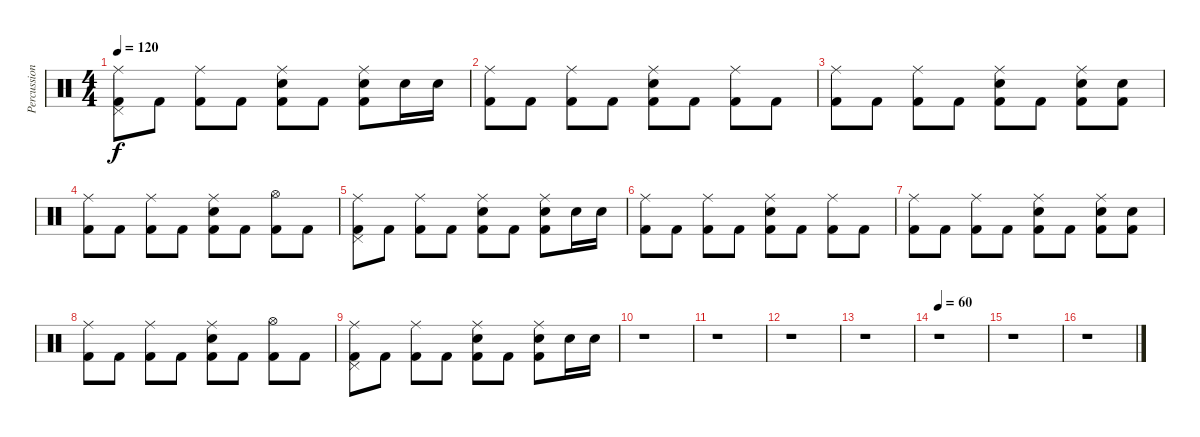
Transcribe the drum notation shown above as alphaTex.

\track ("Percussion" "Percussion") {instrument percussion}
\staff {score}
\articulation defaults
\ts (4 4)
\tempo 120
\clef neutral
\ks c
("Ride (middle)" "Pedal Hi-Hat (hit)" "Kick (hit) 2").8{dy f} "Kick (hit) 2".8 ("Ride (middle)" "Kick (hit) 2").8 "Kick (hit) 2".8 ("Ride (middle)" "Snare (hit) 2" "Kick (hit) 2").8 "Kick (hit) 2".8 ("Ride (middle)" "Snare (hit) 2" "Kick (hit) 2").8 "Snare (hit) 2".16 "Snare (hit) 2".16 |
("Ride (middle)" "Kick (hit) 2").8 "Kick (hit) 2".8 ("Ride (middle)" "Kick (hit) 2").8 "Kick (hit) 2".8 ("Ride (middle)" "Snare (hit) 2" "Kick (hit) 2").8 "Kick (hit) 2".8 ("Ride (middle)" "Kick (hit) 2").8 "Kick (hit) 2".8 |
("Ride (middle)" "Kick (hit) 2").8 "Kick (hit) 2".8 ("Ride (middle)" "Kick (hit) 2").8 "Kick (hit) 2".8 ("Ride (middle)" "Snare (hit) 2" "Kick (hit) 2").8 "Kick (hit) 2".8 ("Ride (middle)" "Snare (hit) 2" "Kick (hit) 2").8 ("Snare (hit) 2" "Kick (hit) 2").8 |
("Ride (middle)" "Kick (hit) 2").8 "Kick (hit) 2".8 ("Ride (middle)" "Kick (hit) 2").8 "Kick (hit) 2".8 ("Ride (middle)" "Snare (hit) 2" "Kick (hit) 2").8 "Kick (hit) 2".8 ("Hi-Hat (open)" "Kick (hit) 2").8 "Kick (hit) 2".8 |
("Ride (middle)" "Pedal Hi-Hat (hit)" "Kick (hit) 2").8 "Kick (hit) 2".8 ("Ride (middle)" "Kick (hit) 2").8 "Kick (hit) 2".8 ("Ride (middle)" "Snare (hit) 2" "Kick (hit) 2").8 "Kick (hit) 2".8 ("Ride (middle)" "Snare (hit) 2" "Kick (hit) 2").8 "Snare (hit) 2".16 "Snare (hit) 2".16 |
("Ride (middle)" "Kick (hit) 2").8 "Kick (hit) 2".8 ("Ride (middle)" "Kick (hit) 2").8 "Kick (hit) 2".8 ("Ride (middle)" "Snare (hit) 2" "Kick (hit) 2").8 "Kick (hit) 2".8 ("Ride (middle)" "Kick (hit) 2").8 "Kick (hit) 2".8 |
("Ride (middle)" "Kick (hit) 2").8 "Kick (hit) 2".8 ("Ride (middle)" "Kick (hit) 2").8 "Kick (hit) 2".8 ("Ride (middle)" "Snare (hit) 2" "Kick (hit) 2").8 "Kick (hit) 2".8 ("Ride (middle)" "Snare (hit) 2" "Kick (hit) 2").8 ("Snare (hit) 2" "Kick (hit) 2").8 |
("Ride (middle)" "Kick (hit) 2").8 "Kick (hit) 2".8 ("Ride (middle)" "Kick (hit) 2").8 "Kick (hit) 2".8 ("Ride (middle)" "Snare (hit) 2" "Kick (hit) 2").8 "Kick (hit) 2".8 ("Hi-Hat (open)" "Kick (hit) 2").8 "Kick (hit) 2".8 |
("Ride (middle)" "Pedal Hi-Hat (hit)" "Kick (hit) 2").8 "Kick (hit) 2".8 ("Ride (middle)" "Kick (hit) 2").8 "Kick (hit) 2".8 ("Ride (middle)" "Snare (hit) 2" "Kick (hit) 2").8 "Kick (hit) 2".8 ("Ride (middle)" "Snare (hit) 2" "Kick (hit) 2").8 "Snare (hit) 2".16 "Snare (hit) 2".16 |
r.1 |
r.1 |
r.1 |
r.1 |
\tempo 60
r.1 |
r.1 |
r.1
